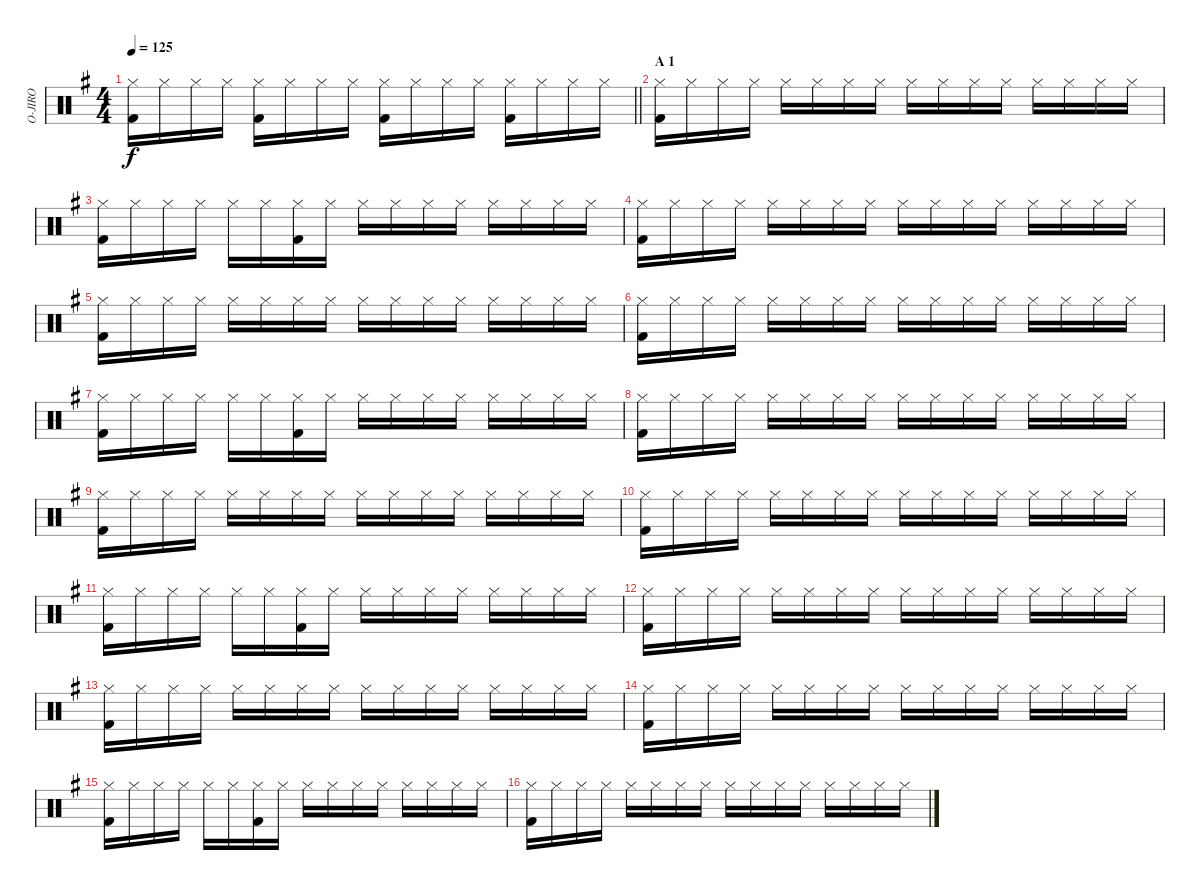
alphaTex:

\track ("O-JIRO" "O-JIRO") {instrument percussion}
\staff {score}
\articulation defaults
\ts (4 4)
\tempo 125
\clef neutral
\barLineRight lightlight
\ks g
("Hi-Hat (closed)" "Kick (hit) 2").16{dy f} "Hi-Hat (closed)".16 "Hi-Hat (closed)".16 "Hi-Hat (closed)".16 ("Hi-Hat (closed)" "Kick (hit) 2").16 "Hi-Hat (closed)".16 "Hi-Hat (closed)".16 "Hi-Hat (closed)".16 ("Hi-Hat (closed)" "Kick (hit) 2").16 "Hi-Hat (closed)".16 "Hi-Hat (closed)".16 "Hi-Hat (closed)".16 ("Hi-Hat (closed)" "Kick (hit) 2").16 "Hi-Hat (closed)".16 "Hi-Hat (closed)".16 "Hi-Hat (closed)".16 |
\section ("" "A 1")
("Hi-Hat (closed)" "Kick (hit) 2").16 "Hi-Hat (closed)".16 "Hi-Hat (closed)".16 "Hi-Hat (closed)".16 "Hi-Hat (closed)".16 "Hi-Hat (closed)".16 "Hi-Hat (closed)".16 "Hi-Hat (closed)".16 "Hi-Hat (closed)".16 "Hi-Hat (closed)".16 "Hi-Hat (closed)".16 "Hi-Hat (closed)".16 "Hi-Hat (closed)".16 "Hi-Hat (closed)".16 "Hi-Hat (closed)".16 "Hi-Hat (closed)".16 |
("Hi-Hat (closed)" "Kick (hit) 2").16 "Hi-Hat (closed)".16 "Hi-Hat (closed)".16 "Hi-Hat (closed)".16 "Hi-Hat (closed)".16 "Hi-Hat (closed)".16 ("Hi-Hat (closed)" "Kick (hit) 2").16 "Hi-Hat (closed)".16 "Hi-Hat (closed)".16 "Hi-Hat (closed)".16 "Hi-Hat (closed)".16 "Hi-Hat (closed)".16 "Hi-Hat (closed)".16 "Hi-Hat (closed)".16 "Hi-Hat (closed)".16 "Hi-Hat (closed)".16 |
("Hi-Hat (closed)" "Kick (hit) 2").16 "Hi-Hat (closed)".16 "Hi-Hat (closed)".16 "Hi-Hat (closed)".16 "Hi-Hat (closed)".16 "Hi-Hat (closed)".16 "Hi-Hat (closed)".16 "Hi-Hat (closed)".16 "Hi-Hat (closed)".16 "Hi-Hat (closed)".16 "Hi-Hat (closed)".16 "Hi-Hat (closed)".16 "Hi-Hat (closed)".16 "Hi-Hat (closed)".16 "Hi-Hat (closed)".16 "Hi-Hat (closed)".16 |
("Hi-Hat (closed)" "Kick (hit) 2").16 "Hi-Hat (closed)".16 "Hi-Hat (closed)".16 "Hi-Hat (closed)".16 "Hi-Hat (closed)".16 "Hi-Hat (closed)".16 "Hi-Hat (closed)".16 "Hi-Hat (closed)".16 "Hi-Hat (closed)".16 "Hi-Hat (closed)".16 "Hi-Hat (closed)".16 "Hi-Hat (closed)".16 "Hi-Hat (closed)".16 "Hi-Hat (closed)".16 "Hi-Hat (closed)".16 "Hi-Hat (closed)".16 |
("Hi-Hat (closed)" "Kick (hit) 2").16 "Hi-Hat (closed)".16 "Hi-Hat (closed)".16 "Hi-Hat (closed)".16 "Hi-Hat (closed)".16 "Hi-Hat (closed)".16 "Hi-Hat (closed)".16 "Hi-Hat (closed)".16 "Hi-Hat (closed)".16 "Hi-Hat (closed)".16 "Hi-Hat (closed)".16 "Hi-Hat (closed)".16 "Hi-Hat (closed)".16 "Hi-Hat (closed)".16 "Hi-Hat (closed)".16 "Hi-Hat (closed)".16 |
("Hi-Hat (closed)" "Kick (hit) 2").16 "Hi-Hat (closed)".16 "Hi-Hat (closed)".16 "Hi-Hat (closed)".16 "Hi-Hat (closed)".16 "Hi-Hat (closed)".16 ("Hi-Hat (closed)" "Kick (hit) 2").16 "Hi-Hat (closed)".16 "Hi-Hat (closed)".16 "Hi-Hat (closed)".16 "Hi-Hat (closed)".16 "Hi-Hat (closed)".16 "Hi-Hat (closed)".16 "Hi-Hat (closed)".16 "Hi-Hat (closed)".16 "Hi-Hat (closed)".16 |
("Hi-Hat (closed)" "Kick (hit) 2").16 "Hi-Hat (closed)".16 "Hi-Hat (closed)".16 "Hi-Hat (closed)".16 "Hi-Hat (closed)".16 "Hi-Hat (closed)".16 "Hi-Hat (closed)".16 "Hi-Hat (closed)".16 "Hi-Hat (closed)".16 "Hi-Hat (closed)".16 "Hi-Hat (closed)".16 "Hi-Hat (closed)".16 "Hi-Hat (closed)".16 "Hi-Hat (closed)".16 "Hi-Hat (closed)".16 "Hi-Hat (closed)".16 |
("Hi-Hat (closed)" "Kick (hit) 2").16 "Hi-Hat (closed)".16 "Hi-Hat (closed)".16 "Hi-Hat (closed)".16 "Hi-Hat (closed)".16 "Hi-Hat (closed)".16 "Hi-Hat (closed)".16 "Hi-Hat (closed)".16 "Hi-Hat (closed)".16 "Hi-Hat (closed)".16 "Hi-Hat (closed)".16 "Hi-Hat (closed)".16 "Hi-Hat (closed)".16 "Hi-Hat (closed)".16 "Hi-Hat (closed)".16 "Hi-Hat (closed)".16 |
("Hi-Hat (closed)" "Kick (hit) 2").16 "Hi-Hat (closed)".16 "Hi-Hat (closed)".16 "Hi-Hat (closed)".16 "Hi-Hat (closed)".16 "Hi-Hat (closed)".16 "Hi-Hat (closed)".16 "Hi-Hat (closed)".16 "Hi-Hat (closed)".16 "Hi-Hat (closed)".16 "Hi-Hat (closed)".16 "Hi-Hat (closed)".16 "Hi-Hat (closed)".16 "Hi-Hat (closed)".16 "Hi-Hat (closed)".16 "Hi-Hat (closed)".16 |
("Hi-Hat (closed)" "Kick (hit) 2").16 "Hi-Hat (closed)".16 "Hi-Hat (closed)".16 "Hi-Hat (closed)".16 "Hi-Hat (closed)".16 "Hi-Hat (closed)".16 ("Hi-Hat (closed)" "Kick (hit) 2").16 "Hi-Hat (closed)".16 "Hi-Hat (closed)".16 "Hi-Hat (closed)".16 "Hi-Hat (closed)".16 "Hi-Hat (closed)".16 "Hi-Hat (closed)".16 "Hi-Hat (closed)".16 "Hi-Hat (closed)".16 "Hi-Hat (closed)".16 |
("Hi-Hat (closed)" "Kick (hit) 2").16 "Hi-Hat (closed)".16 "Hi-Hat (closed)".16 "Hi-Hat (closed)".16 "Hi-Hat (closed)".16 "Hi-Hat (closed)".16 "Hi-Hat (closed)".16 "Hi-Hat (closed)".16 "Hi-Hat (closed)".16 "Hi-Hat (closed)".16 "Hi-Hat (closed)".16 "Hi-Hat (closed)".16 "Hi-Hat (closed)".16 "Hi-Hat (closed)".16 "Hi-Hat (closed)".16 "Hi-Hat (closed)".16 |
("Hi-Hat (closed)" "Kick (hit) 2").16 "Hi-Hat (closed)".16 "Hi-Hat (closed)".16 "Hi-Hat (closed)".16 "Hi-Hat (closed)".16 "Hi-Hat (closed)".16 "Hi-Hat (closed)".16 "Hi-Hat (closed)".16 "Hi-Hat (closed)".16 "Hi-Hat (closed)".16 "Hi-Hat (closed)".16 "Hi-Hat (closed)".16 "Hi-Hat (closed)".16 "Hi-Hat (closed)".16 "Hi-Hat (closed)".16 "Hi-Hat (closed)".16 |
("Hi-Hat (closed)" "Kick (hit) 2").16 "Hi-Hat (closed)".16 "Hi-Hat (closed)".16 "Hi-Hat (closed)".16 "Hi-Hat (closed)".16 "Hi-Hat (closed)".16 "Hi-Hat (closed)".16 "Hi-Hat (closed)".16 "Hi-Hat (closed)".16 "Hi-Hat (closed)".16 "Hi-Hat (closed)".16 "Hi-Hat (closed)".16 "Hi-Hat (closed)".16 "Hi-Hat (closed)".16 "Hi-Hat (closed)".16 "Hi-Hat (closed)".16 |
("Hi-Hat (closed)" "Kick (hit) 2").16 "Hi-Hat (closed)".16 "Hi-Hat (closed)".16 "Hi-Hat (closed)".16 "Hi-Hat (closed)".16 "Hi-Hat (closed)".16 ("Hi-Hat (closed)" "Kick (hit) 2").16 "Hi-Hat (closed)".16 "Hi-Hat (closed)".16 "Hi-Hat (closed)".16 "Hi-Hat (closed)".16 "Hi-Hat (closed)".16 "Hi-Hat (closed)".16 "Hi-Hat (closed)".16 "Hi-Hat (closed)".16 "Hi-Hat (closed)".16 |
("Hi-Hat (closed)" "Kick (hit) 2").16 "Hi-Hat (closed)".16 "Hi-Hat (closed)".16 "Hi-Hat (closed)".16 "Hi-Hat (closed)".16 "Hi-Hat (closed)".16 "Hi-Hat (closed)".16 "Hi-Hat (closed)".16 "Hi-Hat (closed)".16 "Hi-Hat (closed)".16 "Hi-Hat (closed)".16 "Hi-Hat (closed)".16 "Hi-Hat (closed)".16 "Hi-Hat (closed)".16 "Hi-Hat (closed)".16 "Hi-Hat (closed)".16
